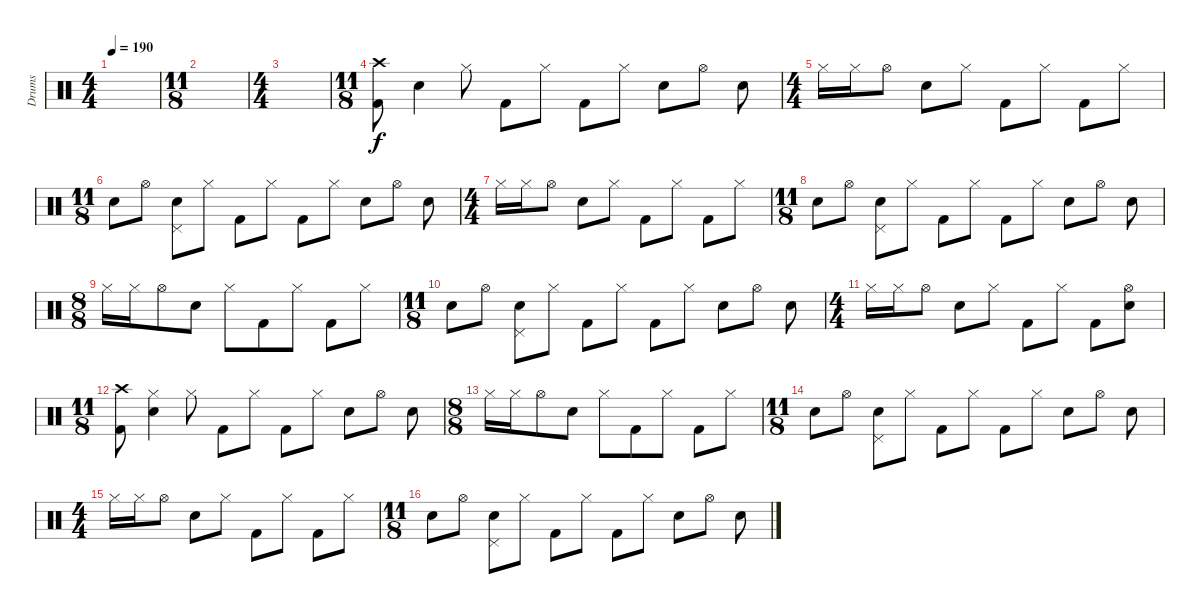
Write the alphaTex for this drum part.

\track ("Drums" "Drums") {instrument percussion}
\staff {score}
\articulation defaults
\ts (4 4)
\tempo 190
\clef neutral
\ks c
|
\ts (11 8)
|
\ts (4 4)
|
\ts (11 8)
("Crash high (hit)" "Kick (hit) 2").8 "Snare (hit) 2".4 "Hi-Hat (closed)".8 "Kick (hit) 2".8 "Hi-Hat (closed)".8 "Kick (hit) 2".8 "Hi-Hat (closed)".8 "Snare (hit) 2".8 "Hi-Hat (open)".8 "Snare (hit) 2".8 |
\ts (4 4)
"Hi-Hat (closed)".16 "Hi-Hat (closed)".16 "Hi-Hat (open)".8 "Snare (hit) 2".8 "Hi-Hat (closed)".8 "Kick (hit) 2".8 "Hi-Hat (closed)".8 "Kick (hit) 2".8 "Hi-Hat (closed)".8 |
\ts (11 8)
"Snare (hit) 2".8 "Hi-Hat (open)".8 ("Pedal Hi-Hat (hit)" "Snare (hit) 2").8 "Hi-Hat (closed)".8 "Kick (hit) 2".8 "Hi-Hat (closed)".8 "Kick (hit) 2".8 "Hi-Hat (closed)".8 "Snare (hit) 2".8 "Hi-Hat (open)".8 "Snare (hit) 2".8 |
\ts (4 4)
"Hi-Hat (closed)".16 "Hi-Hat (closed)".16 "Hi-Hat (open)".8 "Snare (hit) 2".8 "Hi-Hat (closed)".8 "Kick (hit) 2".8 "Hi-Hat (closed)".8 "Kick (hit) 2".8 "Hi-Hat (closed)".8 |
\ts (11 8)
"Snare (hit) 2".8 "Hi-Hat (open)".8 ("Pedal Hi-Hat (hit)" "Snare (hit) 2").8 "Hi-Hat (closed)".8 "Kick (hit) 2".8 "Hi-Hat (closed)".8 "Kick (hit) 2".8 "Hi-Hat (closed)".8 "Snare (hit) 2".8 "Hi-Hat (open)".8 "Snare (hit) 2".8 |
\ts (8 8)
"Hi-Hat (closed)".16 "Hi-Hat (closed)".16 "Hi-Hat (open)".8 "Snare (hit) 2".8 "Hi-Hat (closed)".8 "Kick (hit) 2".8 "Hi-Hat (closed)".8 "Kick (hit) 2".8 "Hi-Hat (closed)".8 |
\ts (11 8)
"Snare (hit) 2".8 "Hi-Hat (open)".8 ("Pedal Hi-Hat (hit)" "Snare (hit) 2").8 "Hi-Hat (closed)".8 "Kick (hit) 2".8 "Hi-Hat (closed)".8 "Kick (hit) 2".8 "Hi-Hat (closed)".8 "Snare (hit) 2".8 "Hi-Hat (open)".8 "Snare (hit) 2".8 |
\ts (4 4)
"Hi-Hat (closed)".16 "Hi-Hat (closed)".16 "Hi-Hat (open)".8 "Snare (hit) 2".8 "Hi-Hat (closed)".8 "Kick (hit) 2".8 "Hi-Hat (closed)".8 "Kick (hit) 2".8 ("Hi-Hat (open)" "Snare (hit) 2").8 |
\ts (11 8)
("Crash high (hit)" "Kick (hit) 2").8 ("Hi-Hat (closed)" "Snare (hit) 2").4 "Hi-Hat (closed)".8 "Kick (hit) 2".8 "Hi-Hat (closed)".8 "Kick (hit) 2".8 "Hi-Hat (closed)".8 "Snare (hit) 2".8 "Hi-Hat (open)".8 "Snare (hit) 2".8 |
\ts (8 8)
"Hi-Hat (closed)".16 "Hi-Hat (closed)".16 "Hi-Hat (open)".8 "Snare (hit) 2".8 "Hi-Hat (closed)".8 "Kick (hit) 2".8 "Hi-Hat (closed)".8 "Kick (hit) 2".8 "Hi-Hat (closed)".8 |
\ts (11 8)
"Snare (hit) 2".8 "Hi-Hat (open)".8 ("Pedal Hi-Hat (hit)" "Snare (hit) 2").8 "Hi-Hat (closed)".8 "Kick (hit) 2".8 "Hi-Hat (closed)".8 "Kick (hit) 2".8 "Hi-Hat (closed)".8 "Snare (hit) 2".8 "Hi-Hat (open)".8 "Snare (hit) 2".8 |
\ts (4 4)
"Hi-Hat (closed)".16 "Hi-Hat (closed)".16 "Hi-Hat (open)".8 "Snare (hit) 2".8 "Hi-Hat (closed)".8 "Kick (hit) 2".8 "Hi-Hat (closed)".8 "Kick (hit) 2".8 "Hi-Hat (closed)".8 |
\ts (11 8)
"Snare (hit) 2".8 "Hi-Hat (open)".8 ("Pedal Hi-Hat (hit)" "Snare (hit) 2").8 "Hi-Hat (closed)".8 "Kick (hit) 2".8 "Hi-Hat (closed)".8 "Kick (hit) 2".8 "Hi-Hat (closed)".8 "Snare (hit) 2".8 "Hi-Hat (open)".8 "Snare (hit) 2".8
